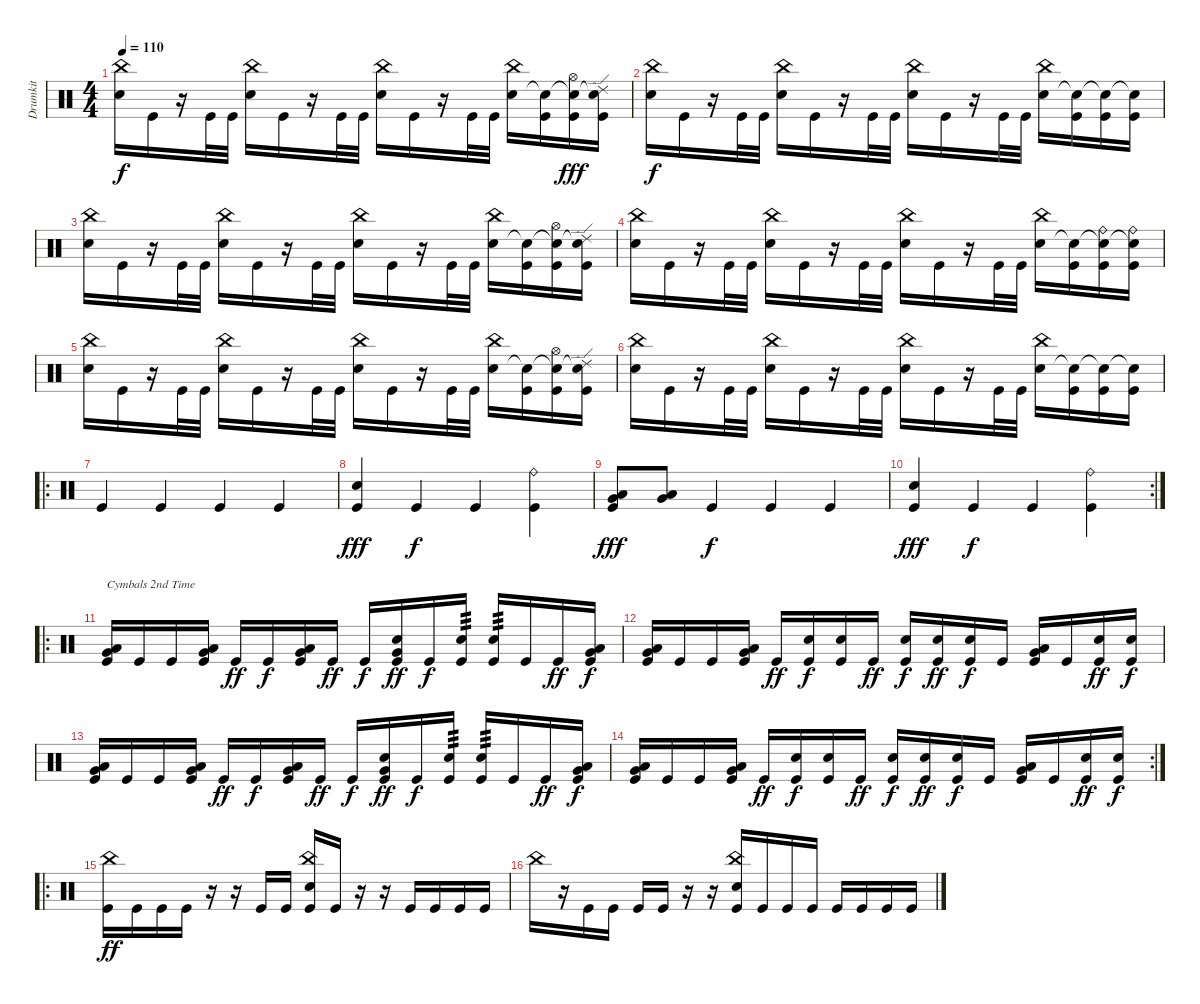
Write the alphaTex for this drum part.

\track ("Drumkit" "Drumkit") {instrument percussion}
\staff {score}
\articulation defaults
\ts (4 4)
\tempo 110
\clef neutral
\ks c
("Snare (hit) 2" "China (hit)").16{dy f} "Kick (hit)".16 r.16 "Kick (hit)".32 "Kick (hit)".32 ("Snare (hit) 2" "China (hit)").16 "Kick (hit)".16 r.16 "Kick (hit)".32 "Kick (hit)".32 ("Snare (hit) 2" "China (hit)").16 "Kick (hit)".16 r.16 "Kick (hit)".32 "Kick (hit)".32 ("Snare (hit) 2" "China (hit)").16 ("Snare (hit) 2"{t} "Kick (hit)").16 ("Snare (hit) 2"{t} "Kick (hit)" "Hi-Hat (open)").16{dy fff} ("Snare (hit) 2"{t} "Kick (hit)" "Ride (edge) 2").16 |
("Snare (hit) 2" "China (hit)").16{dy f} "Kick (hit)".16 r.16 "Kick (hit)".32 "Kick (hit)".32 ("Snare (hit) 2" "China (hit)").16 "Kick (hit)".16 r.16 "Kick (hit)".32 "Kick (hit)".32 ("Snare (hit) 2" "China (hit)").16 "Kick (hit)".16 r.16 "Kick (hit)".32 "Kick (hit)".32 ("Snare (hit) 2" "China (hit)").16 ("Snare (hit) 2"{t} "Kick (hit)").16 ("Snare (hit) 2"{t} "Kick (hit)").16 ("Snare (hit) 2"{t} "Kick (hit)").16 |
("Snare (hit) 2" "China (hit)").16 "Kick (hit)".16 r.16 "Kick (hit)".32 "Kick (hit)".32 ("Snare (hit) 2" "China (hit)").16 "Kick (hit)".16 r.16 "Kick (hit)".32 "Kick (hit)".32 ("Snare (hit) 2" "China (hit)").16 "Kick (hit)".16 r.16 "Kick (hit)".32 "Kick (hit)".32 ("Snare (hit) 2" "China (hit)").16 ("Snare (hit) 2"{t} "Kick (hit)").16 ("Snare (hit) 2"{t} "Kick (hit)" "Hi-Hat (open)").16 ("Snare (hit) 2"{t} "Kick (hit)" "Ride (edge) 2").16 |
("Snare (hit) 2" "China (hit)").16 "Kick (hit)".16 r.16 "Kick (hit)".32 "Kick (hit)".32 ("Snare (hit) 2" "China (hit)").16 "Kick (hit)".16 r.16 "Kick (hit)".32 "Kick (hit)".32 ("Snare (hit) 2" "China (hit)").16 "Kick (hit)".16 r.16 "Kick (hit)".32 "Kick (hit)".32 ("Snare (hit) 2" "China (hit)").16 ("Snare (hit) 2"{t} "Kick (hit)").16 ("Snare (hit) 2"{t} "Kick (hit)" "Ride (bell)").16 ("Snare (hit) 2"{t} "Kick (hit)" "Ride (bell)").16 |
("Snare (hit) 2" "China (hit)").16 "Kick (hit)".16 r.16 "Kick (hit)".32 "Kick (hit)".32 ("Snare (hit) 2" "China (hit)").16 "Kick (hit)".16 r.16 "Kick (hit)".32 "Kick (hit)".32 ("Snare (hit) 2" "China (hit)").16 "Kick (hit)".16 r.16 "Kick (hit)".32 "Kick (hit)".32 ("Snare (hit) 2" "China (hit)").16 ("Snare (hit) 2"{t} "Kick (hit)").16 ("Snare (hit) 2"{t} "Kick (hit)" "Hi-Hat (open)").16 ("Snare (hit) 2"{t} "Kick (hit)" "Ride (edge) 2").16 |
("Snare (hit) 2" "China (hit)").16 "Kick (hit)".16 r.16 "Kick (hit)".32 "Kick (hit)".32 ("Snare (hit) 2" "China (hit)").16 "Kick (hit)".16 r.16 "Kick (hit)".32 "Kick (hit)".32 ("Snare (hit) 2" "China (hit)").16 "Kick (hit)".16 r.16 "Kick (hit)".32 "Kick (hit)".32 ("Snare (hit) 2" "China (hit)").16 ("Snare (hit) 2"{t} "Kick (hit)").16 ("Snare (hit) 2"{t} "Kick (hit)").16 ("Snare (hit) 2"{t} "Kick (hit)").16 |
\ro "Kick (hit)".4 "Kick (hit)".4 "Kick (hit)".4 "Kick (hit)".4
|
("Kick (hit)" "Snare (hit) 2").4{dy fff} "Kick (hit)".4{dy f} "Kick (hit)".4 ("Kick (hit)" "Ride (bell)").4 |
("Kick (hit)" "Low Floor Tom (hit)" "Very Low Tom (hit)").8{dy fff} ("Very Low Tom (hit)" "Low Floor Tom (hit)").8 "Kick (hit)".4{dy f} "Kick (hit)".4 "Kick (hit)".4 |
\rc 2
("Kick (hit)" "Snare (hit) 2").4{dy fff} "Kick (hit)".4{dy f} "Kick (hit)".4 ("Kick (hit)" "Ride (bell)").4 |
\ro
("Kick (hit)" "Low Tom (hit)" "Very Low Tom (hit)").16{txt "Cymbals 2nd Time"} "Kick (hit)".16 "Kick (hit)".16 ("Kick (hit)" "Very Low Tom (hit)" "Low Tom (hit)").16 "Kick (hit)".16{dy ff} "Kick (hit)".16{dy f} ("Kick (hit)" "Very Low Tom (hit)" "Low Tom (hit)").16 "Kick (hit)".16{dy ff} "Kick (hit)".16{dy f} ("Kick (hit)" "Very Low Tom (hit)" "Snare (hit) 2").16{dy ff} "Kick (hit)".16{dy f} ("Kick (hit)" "Snare (hit) 2").16{tp 3} ("Kick (hit)" "Snare (hit) 2").16{tp 3} "Kick (hit)".16 "Kick (hit)".16{dy ff} ("Kick (hit)" "Very Low Tom (hit)" "Low Tom (hit)").16{dy f} |
("Kick (hit)" "Very Low Tom (hit)" "Low Tom (hit)").16 "Kick (hit)".16 "Kick (hit)".16 ("Kick (hit)" "Very Low Tom (hit)" "Low Tom (hit)").16 "Kick (hit)".16{dy ff} ("Kick (hit)" "Snare (hit) 2").16{dy f} ("Kick (hit)" "Snare (hit) 2").16 "Kick (hit)".16{dy ff} ("Kick (hit)" "Snare (hit) 2").16{dy f} ("Kick (hit)" "Snare (hit) 2").16{dy ff} ("Kick (hit)" "Snare (hit) 2").16{dy f} "Kick (hit)".16 ("Kick (hit)" "Very Low Tom (hit)" "Low Tom (hit)").16 "Kick (hit)".16 ("Kick (hit)" "Snare (hit) 2").16{dy ff} ("Kick (hit)" "Snare (hit) 2").16{dy f} |
("Kick (hit)" "Low Tom (hit)" "Very Low Tom (hit)").16 "Kick (hit)".16 "Kick (hit)".16 ("Kick (hit)" "Very Low Tom (hit)" "Low Tom (hit)").16 "Kick (hit)".16{dy ff} "Kick (hit)".16{dy f} ("Kick (hit)" "Very Low Tom (hit)" "Low Tom (hit)").16 "Kick (hit)".16{dy ff} "Kick (hit)".16{dy f} ("Kick (hit)" "Very Low Tom (hit)" "Snare (hit) 2").16{dy ff} "Kick (hit)".16{dy f} ("Kick (hit)" "Snare (hit) 2").16{tp 3} ("Kick (hit)" "Snare (hit) 2").16{tp 3} "Kick (hit)".16 "Kick (hit)".16{dy ff} ("Kick (hit)" "Very Low Tom (hit)" "Low Tom (hit)").16{dy f} |
\rc 2
("Kick (hit)" "Very Low Tom (hit)" "Low Tom (hit)").16 "Kick (hit)".16 "Kick (hit)".16 ("Kick (hit)" "Very Low Tom (hit)" "Low Tom (hit)").16 "Kick (hit)".16{dy ff} ("Kick (hit)" "Snare (hit) 2").16{dy f} ("Kick (hit)" "Snare (hit) 2").16 "Kick (hit)".16{dy ff} ("Kick (hit)" "Snare (hit) 2").16{dy f} ("Kick (hit)" "Snare (hit) 2").16{dy ff} ("Kick (hit)" "Snare (hit) 2").16{dy f} "Kick (hit)".16 ("Kick (hit)" "Very Low Tom (hit)" "Low Tom (hit)").16 "Kick (hit)".16 ("Kick (hit)" "Snare (hit) 2").16{dy ff} ("Kick (hit)" "Snare (hit) 2").16{dy f} |
\ro
("Kick (hit)" "China (hit)").16{dy ff} "Kick (hit)".16 "Kick (hit)".16 "Kick (hit)".16 r.16 r.16 "Kick (hit)".16 "Kick (hit)".16 ("Kick (hit)" "China (hit)" "Snare (hit) 2").16 "Kick (hit)".16 r.16 r.16 "Kick (hit)".16 "Kick (hit)".16 "Kick (hit)".16 "Kick (hit)".16 |
"China (hit)".16 r.16 "Kick (hit)".16 "Kick (hit)".16 "Kick (hit)".16 "Kick (hit)".16 r.16 r.16 ("Kick (hit)" "China (hit)" "Snare (hit) 2").16 "Kick (hit)".16 "Kick (hit)".16 "Kick (hit)".16 "Kick (hit)".16 "Kick (hit)".16 "Kick (hit)".16 "Kick (hit)".16
